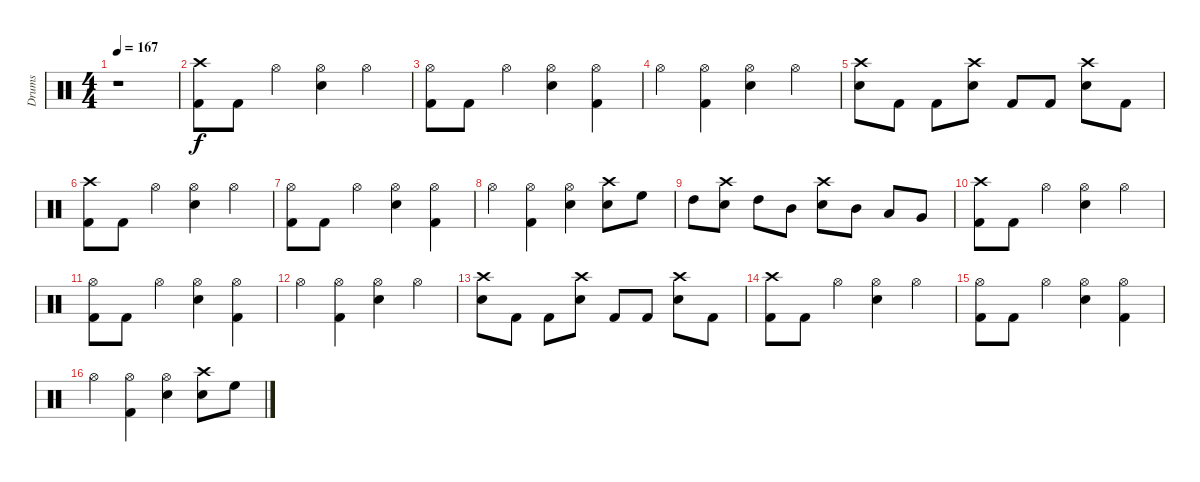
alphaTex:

\track ("Drums" "Drums") {instrument percussion}
\staff {score}
\articulation defaults
\ts (4 4)
\tempo 167
\clef neutral
\ks c
r.1{dy f} |
("Crash high (hit)" "Kick (hit) 2").8 "Kick (hit) 2".8 "Hi-Hat (open)".4 ("Hi-Hat (open)" "Snare (hit) 2").4 "Hi-Hat (open)".4 |
("Hi-Hat (open)" "Kick (hit) 2").8 "Kick (hit) 2".8 "Hi-Hat (open)".4 ("Hi-Hat (open)" "Snare (hit) 2").4 ("Hi-Hat (open)" "Kick (hit) 2").4 |
"Hi-Hat (open)".4 ("Hi-Hat (open)" "Kick (hit) 2").4 ("Hi-Hat (open)" "Snare (hit) 2").4 "Hi-Hat (open)".4 |
("Crash high (hit)" "Snare (hit) 2").8 "Kick (hit) 2".8 "Kick (hit) 2".8 ("Crash high (hit)" "Snare (hit) 2").8 "Kick (hit) 2".8 "Kick (hit) 2".8 ("Crash high (hit)" "Snare (hit) 2").8 "Kick (hit) 2".8 |
("Crash high (hit)" "Kick (hit) 2").8 "Kick (hit) 2".8 "Hi-Hat (open)".4 ("Hi-Hat (open)" "Snare (hit) 2").4 "Hi-Hat (open)".4 |
("Hi-Hat (open)" "Kick (hit) 2").8 "Kick (hit) 2".8 "Hi-Hat (open)".4 ("Hi-Hat (open)" "Snare (hit) 2").4 ("Hi-Hat (open)" "Kick (hit) 2").4 |
"Hi-Hat (open)".4 ("Hi-Hat (open)" "Kick (hit) 2").4 ("Hi-Hat (open)" "Snare (hit) 2").4 ("Crash high (hit)" "Snare (hit) 2").8 "High Floor Tom (hit)".8 |
"High Tom (hit)".8 ("Crash high (hit)" "Snare (hit) 2").8 "High Tom (hit)".8 "Mid Tom (hit)".8 ("Crash high (hit)" "Snare (hit) 2").8 "Mid Tom (hit)".8 "Low Tom (hit)".8 "Very Low Tom (hit)".8 |
("Crash high (hit)" "Kick (hit) 2").8 "Kick (hit) 2".8 "Hi-Hat (open)".4 ("Hi-Hat (open)" "Snare (hit) 2").4 "Hi-Hat (open)".4 |
("Hi-Hat (open)" "Kick (hit) 2").8 "Kick (hit) 2".8 "Hi-Hat (open)".4 ("Hi-Hat (open)" "Snare (hit) 2").4 ("Hi-Hat (open)" "Kick (hit) 2").4 |
"Hi-Hat (open)".4 ("Hi-Hat (open)" "Kick (hit) 2").4 ("Hi-Hat (open)" "Snare (hit) 2").4 "Hi-Hat (open)".4 |
("Crash high (hit)" "Snare (hit) 2").8 "Kick (hit) 2".8 "Kick (hit) 2".8 ("Crash high (hit)" "Snare (hit) 2").8 "Kick (hit) 2".8 "Kick (hit) 2".8 ("Crash high (hit)" "Snare (hit) 2").8 "Kick (hit) 2".8 |
("Crash high (hit)" "Kick (hit) 2").8 "Kick (hit) 2".8 "Hi-Hat (open)".4 ("Hi-Hat (open)" "Snare (hit) 2").4 "Hi-Hat (open)".4 |
("Hi-Hat (open)" "Kick (hit) 2").8 "Kick (hit) 2".8 "Hi-Hat (open)".4 ("Hi-Hat (open)" "Snare (hit) 2").4 ("Hi-Hat (open)" "Kick (hit) 2").4 |
"Hi-Hat (open)".4 ("Hi-Hat (open)" "Kick (hit) 2").4 ("Hi-Hat (open)" "Snare (hit) 2").4 ("Crash high (hit)" "Snare (hit) 2").8 "High Floor Tom (hit)".8
